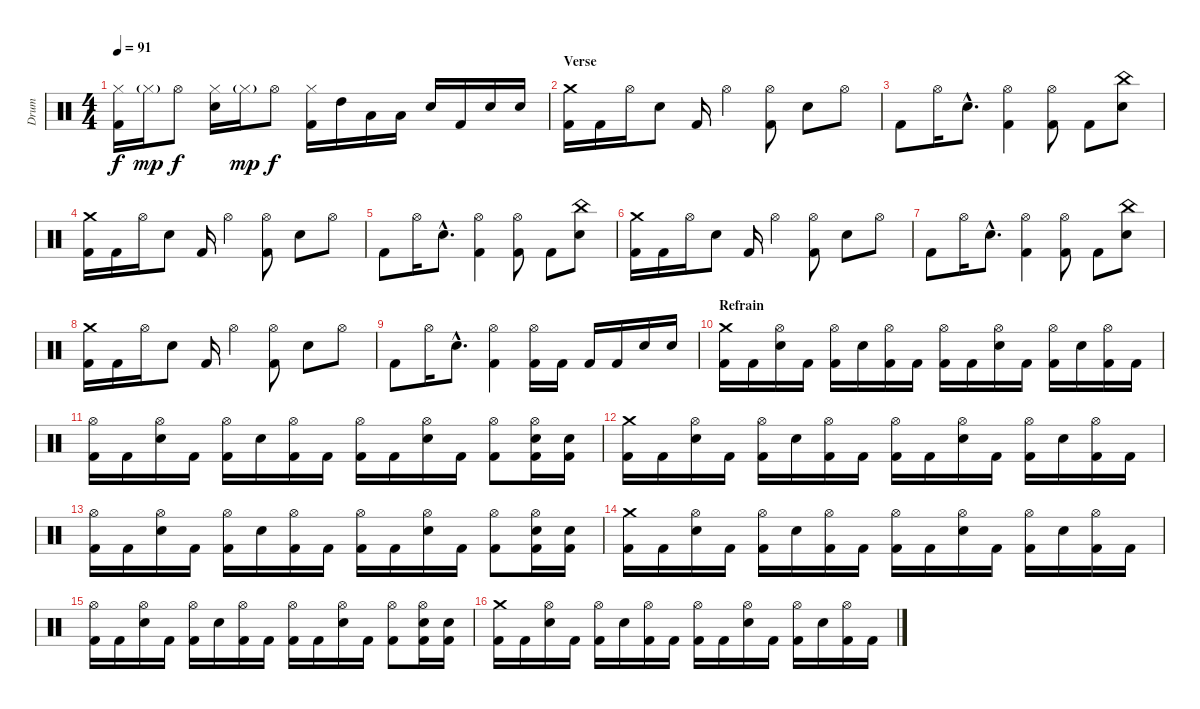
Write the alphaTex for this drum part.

\track ("Drum" "Drum") {instrument percussion}
\staff {score}
\articulation defaults
\ts (4 4)
\tempo 91
\clef neutral
\ks c
("Hi-Hat (closed)" "Kick (hit) 2").16{dy f} "Hi-Hat (closed)"{g}.16{dy mp} "Hi-Hat (open)".8{dy f} ("Hi-Hat (closed)" "Snare (hit) 2").16 "Hi-Hat (closed)"{g}.16{dy mp} "Hi-Hat (open)".8{dy f} ("Hi-Hat (closed)" "Kick (hit) 2").16 "High Tom (hit)".16 "Low Tom (hit)".16 "Low Tom (hit)".16 "Snare (hit) 2".16 "Kick (hit) 2".16 "Snare (hit) 2".16 "Snare (hit) 2".16 |
\section ("" "Verse")
("Crash medium (hit)" "Kick (hit) 2").16 "Kick (hit) 2".16 "Hi-Hat (open)".16 "Snare (hit) 2".8 "Kick (hit) 2".16 "Hi-Hat (open)".4 ("Hi-Hat (open)" "Kick (hit) 2").8 "Snare (hit) 2".8 "Hi-Hat (open)".8 |
"Kick (hit) 2".8 "Hi-Hat (open)".16 "Snare (hit) 2"{hac}.8{d} ("Hi-Hat (open)" "Kick (hit) 2").4 ("Hi-Hat (open)" "Kick (hit) 2").8 "Kick (hit) 2".8 ("China (hit)" "Snare (hit) 2").8 |
("Crash medium (hit)" "Kick (hit) 2").16 "Kick (hit) 2".16 "Hi-Hat (open)".16 "Snare (hit) 2".8 "Kick (hit) 2".16 "Hi-Hat (open)".4 ("Hi-Hat (open)" "Kick (hit) 2").8 "Snare (hit) 2".8 "Hi-Hat (open)".8 |
"Kick (hit) 2".8 "Hi-Hat (open)".16 "Snare (hit) 2"{hac}.8{d} ("Hi-Hat (open)" "Kick (hit) 2").4 ("Hi-Hat (open)" "Kick (hit) 2").8 "Kick (hit) 2".8 ("China (hit)" "Snare (hit) 2").8 |
("Crash medium (hit)" "Kick (hit) 2").16 "Kick (hit) 2".16 "Hi-Hat (open)".16 "Snare (hit) 2".8 "Kick (hit) 2".16 "Hi-Hat (open)".4 ("Hi-Hat (open)" "Kick (hit) 2").8 "Snare (hit) 2".8 "Hi-Hat (open)".8 |
"Kick (hit) 2".8 "Hi-Hat (open)".16 "Snare (hit) 2"{hac}.8{d} ("Hi-Hat (open)" "Kick (hit) 2").4 ("Hi-Hat (open)" "Kick (hit) 2").8 "Kick (hit) 2".8 ("China (hit)" "Snare (hit) 2").8 |
("Crash medium (hit)" "Kick (hit) 2").16 "Kick (hit) 2".16 "Hi-Hat (open)".16 "Snare (hit) 2".8 "Kick (hit) 2".16 "Hi-Hat (open)".4 ("Hi-Hat (open)" "Kick (hit) 2").8 "Snare (hit) 2".8 "Hi-Hat (open)".8 |
"Kick (hit) 2".8 "Hi-Hat (open)".16 "Snare (hit) 2"{hac}.8{d} ("Hi-Hat (open)" "Kick (hit) 2").4 ("Hi-Hat (open)" "Kick (hit) 2").16 "Kick (hit) 2".16 "Kick (hit) 2".16 "Kick (hit) 2".16 "Snare (hit) 2".16 "Snare (hit) 2".16 |
\section ("" "Refrain")
("Crash medium (hit)" "Kick (hit) 2").16 "Kick (hit) 2".16 ("Hi-Hat (open)" "Snare (hit) 2").16 "Kick (hit) 2".16 ("Hi-Hat (open)" "Kick (hit) 2").16 "Snare (hit) 2".16 ("Hi-Hat (open)" "Kick (hit) 2").16 "Kick (hit) 2".16 ("Hi-Hat (open)" "Kick (hit) 2").16 "Kick (hit) 2".16 ("Hi-Hat (open)" "Snare (hit) 2").16 "Kick (hit) 2".16 ("Hi-Hat (open)" "Kick (hit) 2").16 "Snare (hit) 2".16 ("Hi-Hat (open)" "Kick (hit) 2").16 "Kick (hit) 2".16 |
("Hi-Hat (open)" "Kick (hit) 2").16 "Kick (hit) 2".16 ("Hi-Hat (open)" "Snare (hit) 2").16 "Kick (hit) 2".16 ("Hi-Hat (open)" "Kick (hit) 2").16 "Snare (hit) 2".16 ("Hi-Hat (open)" "Kick (hit) 2").16 "Kick (hit) 2".16 ("Hi-Hat (open)" "Kick (hit) 2").16 "Kick (hit) 2".16 ("Hi-Hat (open)" "Snare (hit) 2").16 "Kick (hit) 2".16 ("Hi-Hat (open)" "Kick (hit) 2").8 ("Hi-Hat (open)" "Snare (hit) 2" "Kick (hit) 2").16 ("Snare (hit) 2" "Kick (hit) 2").16 |
("Crash medium (hit)" "Kick (hit) 2").16 "Kick (hit) 2".16 ("Hi-Hat (open)" "Snare (hit) 2").16 "Kick (hit) 2".16 ("Hi-Hat (open)" "Kick (hit) 2").16 "Snare (hit) 2".16 ("Hi-Hat (open)" "Kick (hit) 2").16 "Kick (hit) 2".16 ("Hi-Hat (open)" "Kick (hit) 2").16 "Kick (hit) 2".16 ("Hi-Hat (open)" "Snare (hit) 2").16 "Kick (hit) 2".16 ("Hi-Hat (open)" "Kick (hit) 2").16 "Snare (hit) 2".16 ("Hi-Hat (open)" "Kick (hit) 2").16 "Kick (hit) 2".16 |
("Hi-Hat (open)" "Kick (hit) 2").16 "Kick (hit) 2".16 ("Hi-Hat (open)" "Snare (hit) 2").16 "Kick (hit) 2".16 ("Hi-Hat (open)" "Kick (hit) 2").16 "Snare (hit) 2".16 ("Hi-Hat (open)" "Kick (hit) 2").16 "Kick (hit) 2".16 ("Hi-Hat (open)" "Kick (hit) 2").16 "Kick (hit) 2".16 ("Hi-Hat (open)" "Snare (hit) 2").16 "Kick (hit) 2".16 ("Hi-Hat (open)" "Kick (hit) 2").8 ("Hi-Hat (open)" "Snare (hit) 2" "Kick (hit) 2").16 ("Snare (hit) 2" "Kick (hit) 2").16 |
("Crash medium (hit)" "Kick (hit) 2").16 "Kick (hit) 2".16 ("Hi-Hat (open)" "Snare (hit) 2").16 "Kick (hit) 2".16 ("Hi-Hat (open)" "Kick (hit) 2").16 "Snare (hit) 2".16 ("Hi-Hat (open)" "Kick (hit) 2").16 "Kick (hit) 2".16 ("Hi-Hat (open)" "Kick (hit) 2").16 "Kick (hit) 2".16 ("Hi-Hat (open)" "Snare (hit) 2").16 "Kick (hit) 2".16 ("Hi-Hat (open)" "Kick (hit) 2").16 "Snare (hit) 2".16 ("Hi-Hat (open)" "Kick (hit) 2").16 "Kick (hit) 2".16 |
("Hi-Hat (open)" "Kick (hit) 2").16 "Kick (hit) 2".16 ("Hi-Hat (open)" "Snare (hit) 2").16 "Kick (hit) 2".16 ("Hi-Hat (open)" "Kick (hit) 2").16 "Snare (hit) 2".16 ("Hi-Hat (open)" "Kick (hit) 2").16 "Kick (hit) 2".16 ("Hi-Hat (open)" "Kick (hit) 2").16 "Kick (hit) 2".16 ("Hi-Hat (open)" "Snare (hit) 2").16 "Kick (hit) 2".16 ("Hi-Hat (open)" "Kick (hit) 2").8 ("Hi-Hat (open)" "Snare (hit) 2" "Kick (hit) 2").16 ("Snare (hit) 2" "Kick (hit) 2").16 |
("Crash medium (hit)" "Kick (hit) 2").16 "Kick (hit) 2".16 ("Hi-Hat (open)" "Snare (hit) 2").16 "Kick (hit) 2".16 ("Hi-Hat (open)" "Kick (hit) 2").16 "Snare (hit) 2".16 ("Hi-Hat (open)" "Kick (hit) 2").16 "Kick (hit) 2".16 ("Hi-Hat (open)" "Kick (hit) 2").16 "Kick (hit) 2".16 ("Hi-Hat (open)" "Snare (hit) 2").16 "Kick (hit) 2".16 ("Hi-Hat (open)" "Kick (hit) 2").16 "Snare (hit) 2".16 ("Hi-Hat (open)" "Kick (hit) 2").16 "Kick (hit) 2".16
